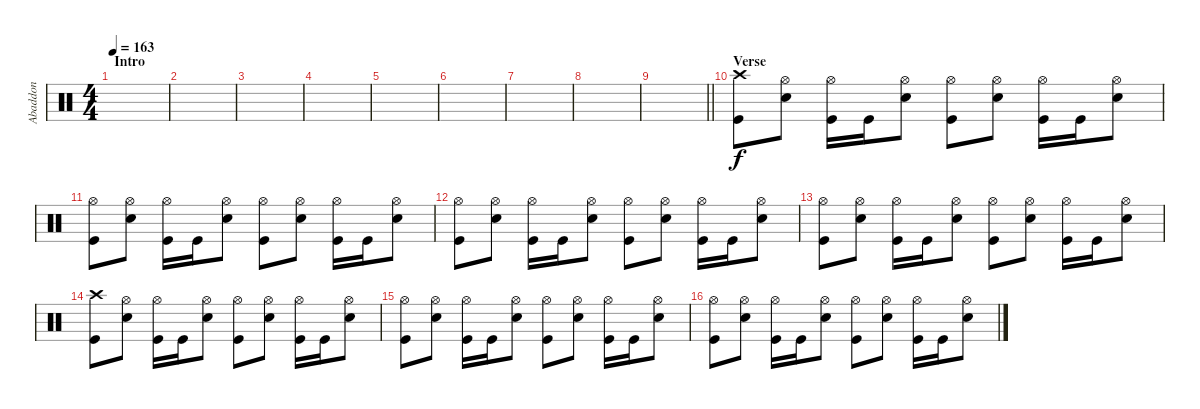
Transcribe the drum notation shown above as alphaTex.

\track ("Abaddon" "Abaddon") {instrument percussion}
\staff {score}
\articulation defaults
\ts (4 4)
\section ("" "Intro")
\tempo 163
\clef neutral
\ks c
|
|
|
|
|
|
|
|
\barLineRight lightlight
|
\section ("" "Verse")
("Crash high (hit)" "Kick (hit)").8 ("Hi-Hat (open)" "Electric Snare (hit)").8 ("Hi-Hat (open)" "Kick (hit)").16 "Kick (hit)".16 ("Hi-Hat (open)" "Electric Snare (hit)").8 ("Hi-Hat (open)" "Kick (hit)").8 ("Hi-Hat (open)" "Electric Snare (hit)").8 ("Hi-Hat (open)" "Kick (hit)").16 "Kick (hit)".16 ("Hi-Hat (open)" "Electric Snare (hit)").8 |
("Hi-Hat (open)" "Kick (hit)").8 ("Hi-Hat (open)" "Electric Snare (hit)").8 ("Hi-Hat (open)" "Kick (hit)").16 "Kick (hit)".16 ("Hi-Hat (open)" "Electric Snare (hit)").8 ("Hi-Hat (open)" "Kick (hit)").8 ("Hi-Hat (open)" "Electric Snare (hit)").8 ("Hi-Hat (open)" "Kick (hit)").16 "Kick (hit)".16 ("Hi-Hat (open)" "Electric Snare (hit)").8 |
("Hi-Hat (open)" "Kick (hit)").8 ("Hi-Hat (open)" "Electric Snare (hit)").8 ("Hi-Hat (open)" "Kick (hit)").16 "Kick (hit)".16 ("Hi-Hat (open)" "Electric Snare (hit)").8 ("Hi-Hat (open)" "Kick (hit)").8 ("Hi-Hat (open)" "Electric Snare (hit)").8 ("Hi-Hat (open)" "Kick (hit)").16 "Kick (hit)".16 ("Hi-Hat (open)" "Electric Snare (hit)").8 |
("Hi-Hat (open)" "Kick (hit)").8 ("Hi-Hat (open)" "Electric Snare (hit)").8 ("Hi-Hat (open)" "Kick (hit)").16 "Kick (hit)".16 ("Hi-Hat (open)" "Electric Snare (hit)").8 ("Hi-Hat (open)" "Kick (hit)").8 ("Hi-Hat (open)" "Electric Snare (hit)").8 ("Hi-Hat (open)" "Kick (hit)").16 "Kick (hit)".16 ("Hi-Hat (open)" "Electric Snare (hit)").8 |
("Crash high (hit)" "Kick (hit)").8 ("Hi-Hat (open)" "Electric Snare (hit)").8 ("Hi-Hat (open)" "Kick (hit)").16 "Kick (hit)".16 ("Hi-Hat (open)" "Electric Snare (hit)").8 ("Hi-Hat (open)" "Kick (hit)").8 ("Hi-Hat (open)" "Electric Snare (hit)").8 ("Hi-Hat (open)" "Kick (hit)").16 "Kick (hit)".16 ("Hi-Hat (open)" "Electric Snare (hit)").8 |
("Hi-Hat (open)" "Kick (hit)").8 ("Hi-Hat (open)" "Electric Snare (hit)").8 ("Hi-Hat (open)" "Kick (hit)").16 "Kick (hit)".16 ("Hi-Hat (open)" "Electric Snare (hit)").8 ("Hi-Hat (open)" "Kick (hit)").8 ("Hi-Hat (open)" "Electric Snare (hit)").8 ("Hi-Hat (open)" "Kick (hit)").16 "Kick (hit)".16 ("Hi-Hat (open)" "Electric Snare (hit)").8 |
("Hi-Hat (open)" "Kick (hit)").8 ("Hi-Hat (open)" "Electric Snare (hit)").8 ("Hi-Hat (open)" "Kick (hit)").16 "Kick (hit)".16 ("Hi-Hat (open)" "Electric Snare (hit)").8 ("Hi-Hat (open)" "Kick (hit)").8 ("Hi-Hat (open)" "Electric Snare (hit)").8 ("Hi-Hat (open)" "Kick (hit)").16 "Kick (hit)".16 ("Hi-Hat (open)" "Electric Snare (hit)").8
